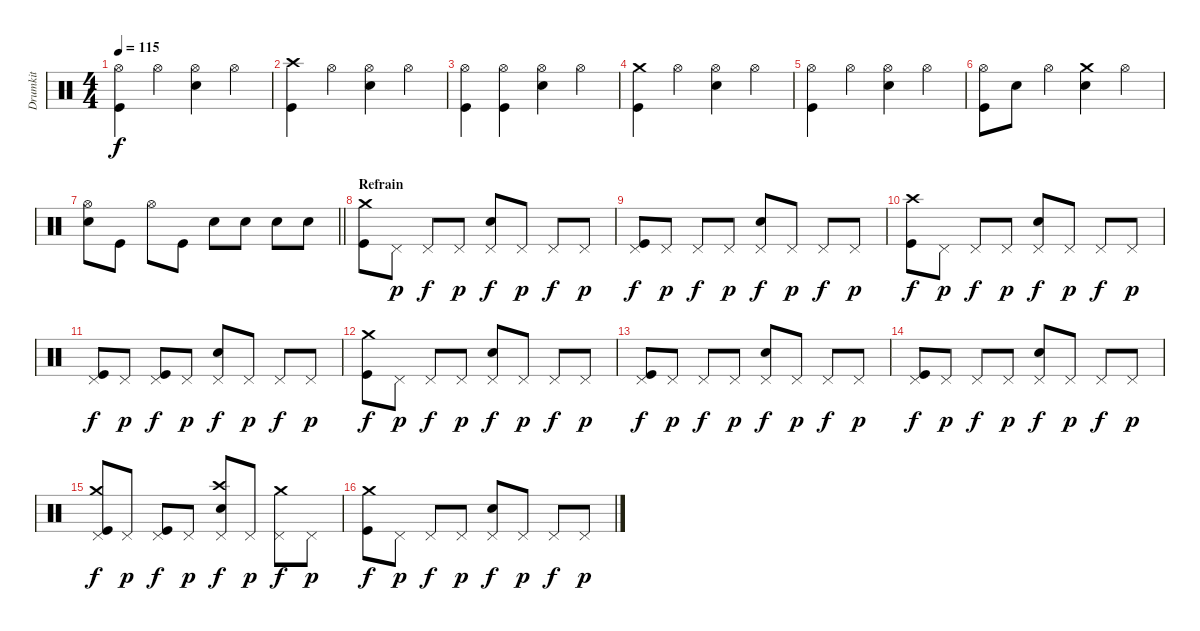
\track ("Drumkit" "Drumkit") {instrument percussion}
\staff {score}
\articulation defaults
\ts (4 4)
\tempo 115
\clef neutral
\ks c
("Kick (hit)" "Hi-Hat (open)").4{dy f} "Hi-Hat (open)".4 ("Hi-Hat (open)" "Snare (hit) 2").4 "Hi-Hat (open)".4 |
("Kick (hit)" "Crash high (hit)").4 "Hi-Hat (open)".4 ("Hi-Hat (open)" "Snare (hit) 2").4 "Hi-Hat (open)".4 |
("Kick (hit)" "Hi-Hat (open)").4 ("Kick (hit)" "Hi-Hat (open)").4 ("Hi-Hat (open)" "Snare (hit) 2").4 "Hi-Hat (open)".4 |
("Kick (hit)" "Crash medium (hit)").4 "Hi-Hat (open)".4 ("Hi-Hat (open)" "Snare (hit) 2").4 "Hi-Hat (open)".4 |
("Kick (hit)" "Hi-Hat (open)").4 "Hi-Hat (open)".4 ("Hi-Hat (open)" "Snare (hit) 2").4 "Hi-Hat (open)".4 |
("Kick (hit)" "Hi-Hat (open)").8 "Snare (hit) 2".8 "Hi-Hat (open)".4 ("Crash medium (hit)" "Snare (hit) 2").4 "Hi-Hat (open)".4 |
\barLineRight lightlight
("Hi-Hat (open)" "Snare (hit) 2").8 "Kick (hit)".8 "Hi-Hat (open)".8 "Kick (hit)".8 "Snare (hit) 2".8 "Snare (hit) 2".8 "Snare (hit) 2".8 "Snare (hit) 2".8 |
\section ("" "Refrain")
("Kick (hit)" "Crash medium (hit)").8 "Pedal Hi-Hat (hit)".8{dy p} "Pedal Hi-Hat (hit)".8{dy f} "Pedal Hi-Hat (hit)".8{dy p} ("Pedal Hi-Hat (hit)" "Snare (hit) 2").8{dy f} "Pedal Hi-Hat (hit)".8{dy p} "Pedal Hi-Hat (hit)".8{dy f} "Pedal Hi-Hat (hit)".8{dy p} |
("Kick (hit)" "Pedal Hi-Hat (hit)").8{dy f} "Pedal Hi-Hat (hit)".8{dy p} "Pedal Hi-Hat (hit)".8{dy f} "Pedal Hi-Hat (hit)".8{dy p} ("Pedal Hi-Hat (hit)" "Snare (hit) 2").8{dy f} "Pedal Hi-Hat (hit)".8{dy p} "Pedal Hi-Hat (hit)".8{dy f} "Pedal Hi-Hat (hit)".8{dy p} |
("Kick (hit)" "Crash high (hit)").8{dy f} "Pedal Hi-Hat (hit)".8{dy p} "Pedal Hi-Hat (hit)".8{dy f} "Pedal Hi-Hat (hit)".8{dy p} ("Pedal Hi-Hat (hit)" "Snare (hit) 2").8{dy f} "Pedal Hi-Hat (hit)".8{dy p} "Pedal Hi-Hat (hit)".8{dy f} "Pedal Hi-Hat (hit)".8{dy p} |
("Kick (hit)" "Pedal Hi-Hat (hit)").8{dy f} "Pedal Hi-Hat (hit)".8{dy p} ("Kick (hit)" "Pedal Hi-Hat (hit)").8{dy f} "Pedal Hi-Hat (hit)".8{dy p} ("Pedal Hi-Hat (hit)" "Snare (hit) 2").8{dy f} "Pedal Hi-Hat (hit)".8{dy p} "Pedal Hi-Hat (hit)".8{dy f} "Pedal Hi-Hat (hit)".8{dy p} |
("Kick (hit)" "Crash medium (hit)").8{dy f} "Pedal Hi-Hat (hit)".8{dy p} "Pedal Hi-Hat (hit)".8{dy f} "Pedal Hi-Hat (hit)".8{dy p} ("Pedal Hi-Hat (hit)" "Snare (hit) 2").8{dy f} "Pedal Hi-Hat (hit)".8{dy p} "Pedal Hi-Hat (hit)".8{dy f} "Pedal Hi-Hat (hit)".8{dy p} |
("Kick (hit)" "Pedal Hi-Hat (hit)").8{dy f} "Pedal Hi-Hat (hit)".8{dy p} "Pedal Hi-Hat (hit)".8{dy f} "Pedal Hi-Hat (hit)".8{dy p} ("Pedal Hi-Hat (hit)" "Snare (hit) 2").8{dy f} "Pedal Hi-Hat (hit)".8{dy p} "Pedal Hi-Hat (hit)".8{dy f} "Pedal Hi-Hat (hit)".8{dy p} |
("Kick (hit)" "Pedal Hi-Hat (hit)").8{dy f} "Pedal Hi-Hat (hit)".8{dy p} "Pedal Hi-Hat (hit)".8{dy f} "Pedal Hi-Hat (hit)".8{dy p} ("Pedal Hi-Hat (hit)" "Snare (hit) 2").8{dy f} "Pedal Hi-Hat (hit)".8{dy p} "Pedal Hi-Hat (hit)".8{dy f} "Pedal Hi-Hat (hit)".8{dy p} |
("Kick (hit)" "Crash medium (hit)" "Pedal Hi-Hat (hit)").8{dy f} "Pedal Hi-Hat (hit)".8{dy p} ("Kick (hit)" "Pedal Hi-Hat (hit)").8{dy f} "Pedal Hi-Hat (hit)".8{dy p} ("Crash high (hit)" "Pedal Hi-Hat (hit)" "Snare (hit) 2").8{dy f} "Pedal Hi-Hat (hit)".8{dy p} ("Crash medium (hit)" "Pedal Hi-Hat (hit)").8{dy f} "Pedal Hi-Hat (hit)".8{dy p} |
("Kick (hit)" "Crash medium (hit)").8{dy f} "Pedal Hi-Hat (hit)".8{dy p} "Pedal Hi-Hat (hit)".8{dy f} "Pedal Hi-Hat (hit)".8{dy p} ("Pedal Hi-Hat (hit)" "Snare (hit) 2").8{dy f} "Pedal Hi-Hat (hit)".8{dy p} "Pedal Hi-Hat (hit)".8{dy f} "Pedal Hi-Hat (hit)".8{dy p}
